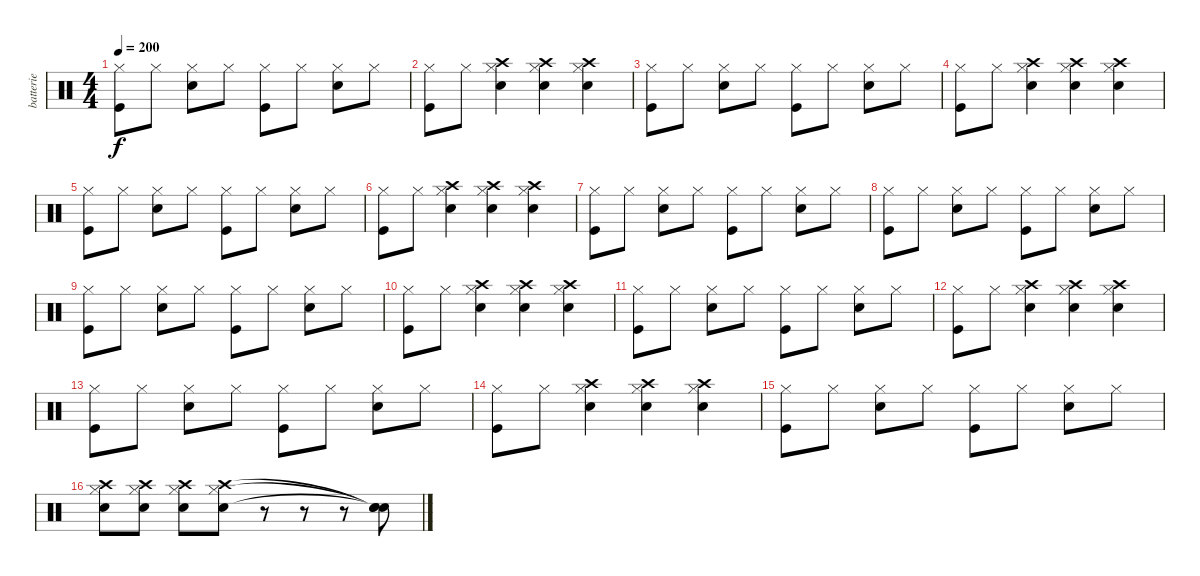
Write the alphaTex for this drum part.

\track ("batterie" "batterie") {instrument percussion}
\staff {score}
\articulation defaults
\ts (4 4)
\tempo 200
\clef neutral
\ks c
("Hi-Hat (closed)" "Kick (hit)").8{dy f} "Hi-Hat (closed)".8 ("Hi-Hat (closed)" "Electric Snare (hit)").8 "Hi-Hat (closed)".8 ("Hi-Hat (closed)" "Kick (hit)").8 "Hi-Hat (closed)".8 ("Hi-Hat (closed)" "Electric Snare (hit)").8 "Hi-Hat (closed)".8 |
("Hi-Hat (closed)" "Kick (hit)").8 "Hi-Hat (closed)".8 ("Hi-Hat (closed)" "Electric Snare (hit)" "Crash high (hit)").4 ("Hi-Hat (closed)" "Electric Snare (hit)" "Crash high (hit)").4 ("Hi-Hat (closed)" "Electric Snare (hit)" "Crash high (hit)").4 |
("Hi-Hat (closed)" "Kick (hit)").8 "Hi-Hat (closed)".8 ("Hi-Hat (closed)" "Electric Snare (hit)").8 "Hi-Hat (closed)".8 ("Hi-Hat (closed)" "Kick (hit)").8 "Hi-Hat (closed)".8 ("Hi-Hat (closed)" "Electric Snare (hit)").8 "Hi-Hat (closed)".8 |
("Hi-Hat (closed)" "Kick (hit)").8 "Hi-Hat (closed)".8 ("Hi-Hat (closed)" "Electric Snare (hit)" "Crash high (hit)").4 ("Hi-Hat (closed)" "Electric Snare (hit)" "Crash high (hit)").4 ("Hi-Hat (closed)" "Electric Snare (hit)" "Crash high (hit)").4 |
("Hi-Hat (closed)" "Kick (hit)").8 "Hi-Hat (closed)".8 ("Hi-Hat (closed)" "Electric Snare (hit)").8 "Hi-Hat (closed)".8 ("Hi-Hat (closed)" "Kick (hit)").8 "Hi-Hat (closed)".8 ("Hi-Hat (closed)" "Electric Snare (hit)").8 "Hi-Hat (closed)".8 |
("Hi-Hat (closed)" "Kick (hit)").8 "Hi-Hat (closed)".8 ("Hi-Hat (closed)" "Electric Snare (hit)" "Crash high (hit)").4 ("Hi-Hat (closed)" "Electric Snare (hit)" "Crash high (hit)").4 ("Hi-Hat (closed)" "Electric Snare (hit)" "Crash high (hit)").4 |
("Hi-Hat (closed)" "Kick (hit)").8 "Hi-Hat (closed)".8 ("Hi-Hat (closed)" "Electric Snare (hit)").8 "Hi-Hat (closed)".8 ("Hi-Hat (closed)" "Kick (hit)").8 "Hi-Hat (closed)".8 ("Hi-Hat (closed)" "Electric Snare (hit)").8 "Hi-Hat (closed)".8 |
("Hi-Hat (closed)" "Kick (hit)").8 "Hi-Hat (closed)".8 ("Hi-Hat (closed)" "Electric Snare (hit)").8 "Hi-Hat (closed)".8 ("Hi-Hat (closed)" "Kick (hit)").8 "Hi-Hat (closed)".8 ("Hi-Hat (closed)" "Electric Snare (hit)").8 "Hi-Hat (closed)".8 |
("Hi-Hat (closed)" "Kick (hit)").8 "Hi-Hat (closed)".8 ("Hi-Hat (closed)" "Electric Snare (hit)").8 "Hi-Hat (closed)".8 ("Hi-Hat (closed)" "Kick (hit)").8 "Hi-Hat (closed)".8 ("Hi-Hat (closed)" "Electric Snare (hit)").8 "Hi-Hat (closed)".8 |
("Hi-Hat (closed)" "Kick (hit)").8 "Hi-Hat (closed)".8 ("Hi-Hat (closed)" "Electric Snare (hit)" "Crash high (hit)").4 ("Hi-Hat (closed)" "Electric Snare (hit)" "Crash high (hit)").4 ("Hi-Hat (closed)" "Electric Snare (hit)" "Crash high (hit)").4 |
("Hi-Hat (closed)" "Kick (hit)").8 "Hi-Hat (closed)".8 ("Hi-Hat (closed)" "Electric Snare (hit)").8 "Hi-Hat (closed)".8 ("Hi-Hat (closed)" "Kick (hit)").8 "Hi-Hat (closed)".8 ("Hi-Hat (closed)" "Electric Snare (hit)").8 "Hi-Hat (closed)".8 |
("Hi-Hat (closed)" "Kick (hit)").8 "Hi-Hat (closed)".8 ("Hi-Hat (closed)" "Electric Snare (hit)" "Crash high (hit)").4 ("Hi-Hat (closed)" "Electric Snare (hit)" "Crash high (hit)").4 ("Hi-Hat (closed)" "Electric Snare (hit)" "Crash high (hit)").4 |
("Hi-Hat (closed)" "Kick (hit)").8 "Hi-Hat (closed)".8 ("Hi-Hat (closed)" "Electric Snare (hit)").8 "Hi-Hat (closed)".8 ("Hi-Hat (closed)" "Kick (hit)").8 "Hi-Hat (closed)".8 ("Hi-Hat (closed)" "Electric Snare (hit)").8 "Hi-Hat (closed)".8 |
("Hi-Hat (closed)" "Kick (hit)").8 "Hi-Hat (closed)".8 ("Hi-Hat (closed)" "Electric Snare (hit)" "Crash high (hit)").4 ("Hi-Hat (closed)" "Electric Snare (hit)" "Crash high (hit)").4 ("Hi-Hat (closed)" "Electric Snare (hit)" "Crash high (hit)").4 |
("Hi-Hat (closed)" "Kick (hit)").8 "Hi-Hat (closed)".8 ("Hi-Hat (closed)" "Electric Snare (hit)").8 "Hi-Hat (closed)".8 ("Hi-Hat (closed)" "Kick (hit)").8 "Hi-Hat (closed)".8 ("Hi-Hat (closed)" "Electric Snare (hit)").8 "Hi-Hat (closed)".8 |
("Crash high (hit)" "Hi-Hat (closed)" "Electric Snare (hit)").8 ("Crash high (hit)" "Hi-Hat (closed)" "Electric Snare (hit)").8 ("Crash high (hit)" "Hi-Hat (closed)" "Electric Snare (hit)").8 ("Crash high (hit)" "Hi-Hat (closed)" "Electric Snare (hit)").8 r.8 r.8 r.8 ("Snare (hit)"{t} "Snare (hit)"{t} "Snare (hit)"{t}).8
